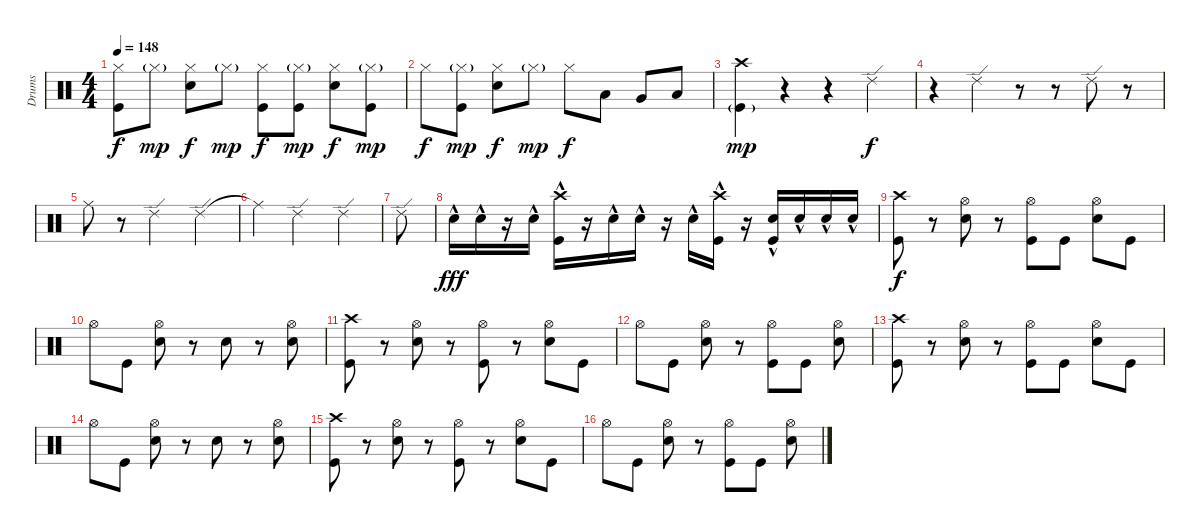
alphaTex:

\track ("Drums" "Drums") {instrument percussion}
\staff {score}
\articulation defaults
\ts (4 4)
\tempo 148
\clef neutral
\ks c
("Hi-Hat (closed)" "Kick (hit)").8{dy f} "Hi-Hat (closed)"{g}.8{dy mp} ("Hi-Hat (closed)" "Electric Snare (hit)").8{dy f} "Hi-Hat (closed)"{g}.8{dy mp} ("Hi-Hat (closed)" "Kick (hit)").8{dy f} ("Hi-Hat (closed)"{g} "Kick (hit)").8{dy mp} ("Hi-Hat (closed)" "Electric Snare (hit)").8{dy f} ("Hi-Hat (closed)"{g} "Kick (hit)").8{dy mp} |
"Hi-Hat (closed)".8{dy f} ("Hi-Hat (closed)"{g} "Kick (hit)").8{dy mp} ("Hi-Hat (closed)" "Electric Snare (hit)").8{dy f} "Hi-Hat (closed)"{g}.8{dy mp} "Hi-Hat (closed)".8{dy f} "Low Tom (hit)".8 "Very Low Tom (hit)".8 "Low Floor Tom (hit)".8 |
("Crash high (hit)" "Kick (hit)"{g}).4{dy mp} r.4 r.4 "Ride (edge) 2".4{dy f} |
r.4 "Ride (edge) 2".4 r.8 r.8 "Ride (edge) 2".8 r.8 |
"Ride (middle)".8 r.8 "Ride (edge) 2".2 "Ride (edge) 2".4 |
"Ride (middle)"{t}.4 "Ride (edge) 2".2 "Ride (edge) 2".4 |
"Ride (edge) 2".8 |
"Electric Snare (hit)"{hac}.16{dy fff} "Electric Snare (hit)"{hac}.16 r.16 "Electric Snare (hit)"{hac}.16 ("Crash high (hit)"{hac} "Kick (hit)").16 r.16 "Electric Snare (hit)"{hac}.16 "Electric Snare (hit)"{hac}.16 r.16 "Electric Snare (hit)"{hac}.16 ("Crash high (hit)"{hac} "Kick (hit)").16 r.16 ("Electric Snare (hit)"{hac} "Kick (hit)").16 "Electric Snare (hit)"{hac}.16 "Electric Snare (hit)"{hac}.16 "Electric Snare (hit)"{hac}.16 |
("Crash high (hit)" "Kick (hit)").8{dy f} r.8 ("Hi-Hat (open)" "Electric Snare (hit)").8 r.8 ("Hi-Hat (open)" "Kick (hit)").8 "Kick (hit)".8 ("Hi-Hat (open)" "Electric Snare (hit)").8 "Kick (hit)".8 |
"Hi-Hat (open)".8 "Kick (hit)".8 ("Hi-Hat (open)" "Electric Snare (hit)").8 r.8 "Electric Snare (hit)".8 r.8 ("Hi-Hat (open)" "Electric Snare (hit)").8 |
("Crash high (hit)" "Kick (hit)").8 r.8 ("Hi-Hat (open)" "Electric Snare (hit)").8 r.8 ("Hi-Hat (open)" "Kick (hit)").8 r.8 ("Hi-Hat (open)" "Electric Snare (hit)").8 "Kick (hit)".8 |
"Hi-Hat (open)".8 "Kick (hit)".8 ("Hi-Hat (open)" "Electric Snare (hit)").8 r.8 ("Hi-Hat (open)" "Kick (hit)").8 "Kick (hit)".8 ("Hi-Hat (open)" "Electric Snare (hit)").8 |
("Crash high (hit)" "Kick (hit)").8 r.8 ("Hi-Hat (open)" "Electric Snare (hit)").8 r.8 ("Hi-Hat (open)" "Kick (hit)").8 "Kick (hit)".8 ("Hi-Hat (open)" "Electric Snare (hit)").8 "Kick (hit)".8 |
"Hi-Hat (open)".8 "Kick (hit)".8 ("Hi-Hat (open)" "Electric Snare (hit)").8 r.8 "Electric Snare (hit)".8 r.8 ("Hi-Hat (open)" "Electric Snare (hit)").8 |
("Crash high (hit)" "Kick (hit)").8 r.8 ("Hi-Hat (open)" "Electric Snare (hit)").8 r.8 ("Hi-Hat (open)" "Kick (hit)").8 r.8 ("Hi-Hat (open)" "Electric Snare (hit)").8 "Kick (hit)".8 |
"Hi-Hat (open)".8 "Kick (hit)".8 ("Hi-Hat (open)" "Electric Snare (hit)").8 r.8 ("Hi-Hat (open)" "Kick (hit)").8 "Kick (hit)".8 ("Hi-Hat (open)" "Electric Snare (hit)").8
